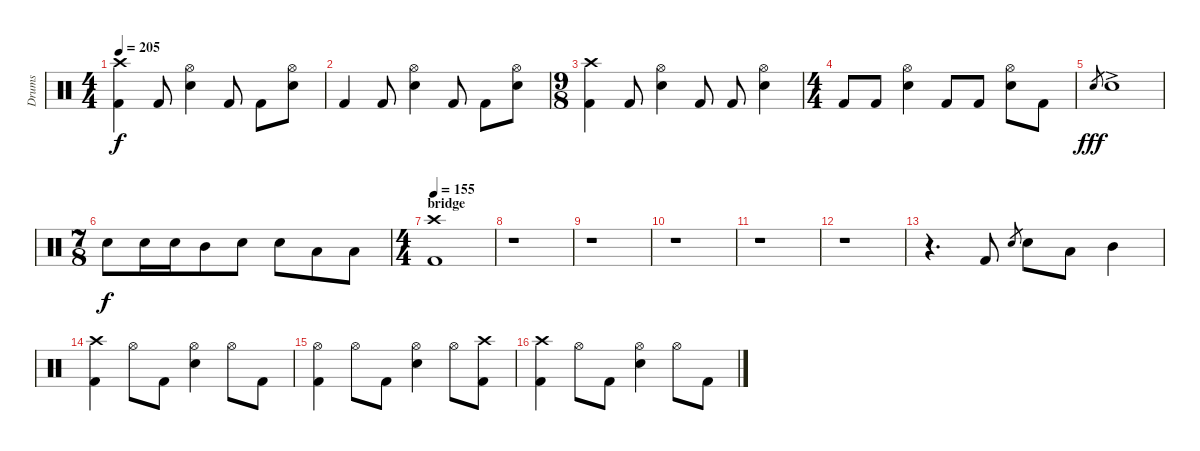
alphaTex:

\track ("Drums" "Drums") {instrument percussion}
\staff {score}
\articulation defaults
\ts (4 4)
\tempo 205
\clef neutral
\ks c
("Crash high (hit)" "Kick (hit) 2").4{dy f} "Kick (hit) 2".8 ("Hi-Hat (open)" "Electric Snare (hit)").4 "Kick (hit) 2".8 "Kick (hit) 2".8 ("Hi-Hat (open)" "Electric Snare (hit)").8 |
"Kick (hit) 2".4 "Kick (hit) 2".8 ("Hi-Hat (open)" "Electric Snare (hit)").4 "Kick (hit) 2".8 "Kick (hit) 2".8 ("Hi-Hat (open)" "Electric Snare (hit)").8 |
\ts (9 8)
("Crash high (hit)" "Kick (hit) 2").4 "Kick (hit) 2".8 ("Hi-Hat (open)" "Electric Snare (hit)").4 "Kick (hit) 2".8 "Kick (hit) 2".8 ("Hi-Hat (open)" "Electric Snare (hit)").4 |
\ts (4 4)
"Kick (hit) 2".8 "Kick (hit) 2".8 ("Hi-Hat (open)" "Electric Snare (hit)").4 "Kick (hit) 2".8 "Kick (hit) 2".8 ("Hi-Hat (open)" "Electric Snare (hit)").8 "Kick (hit) 2".8 |
"Electric Snare (hit)".8{gr dy fff} "Electric Snare (hit)"{ac}.1 |
\ts (7 8)
"Electric Snare (hit)".8{dy f} "Electric Snare (hit)".16 "Electric Snare (hit)".16 "Mid Tom (hit)".8 "Electric Snare (hit)".8 "Electric Snare (hit)".8 "Low Tom (hit)".8 "Low Tom (hit)".8 |
\ts (4 4)
\section ("" "bridge")
\tempo 155
("Crash high (hit)" "Kick (hit) 2").1 |
r.1 |
r.1 |
r.1 |
r.1 |
r.1 |
r.4{d} "Kick (hit) 2".8 "Electric Snare (hit)".8{gr} "Electric Snare (hit)".8 "Low Tom (hit)".8 "Mid Tom (hit)".4 |
("Crash high (hit)" "Kick (hit) 2").4 "Hi-Hat (open)".8 "Kick (hit) 2".8 ("Hi-Hat (open)" "Electric Snare (hit)").4 "Hi-Hat (open)".8 "Kick (hit) 2".8 |
("Hi-Hat (open)" "Kick (hit) 2").4 "Hi-Hat (open)".8 "Kick (hit) 2".8 ("Hi-Hat (open)" "Electric Snare (hit)").4 "Hi-Hat (open)".8 ("Crash high (hit)" "Kick (hit) 2").8 |
("Crash high (hit)" "Kick (hit) 2").4 "Hi-Hat (open)".8 "Kick (hit) 2".8 ("Hi-Hat (open)" "Electric Snare (hit)").4 "Hi-Hat (open)".8 "Kick (hit) 2".8
